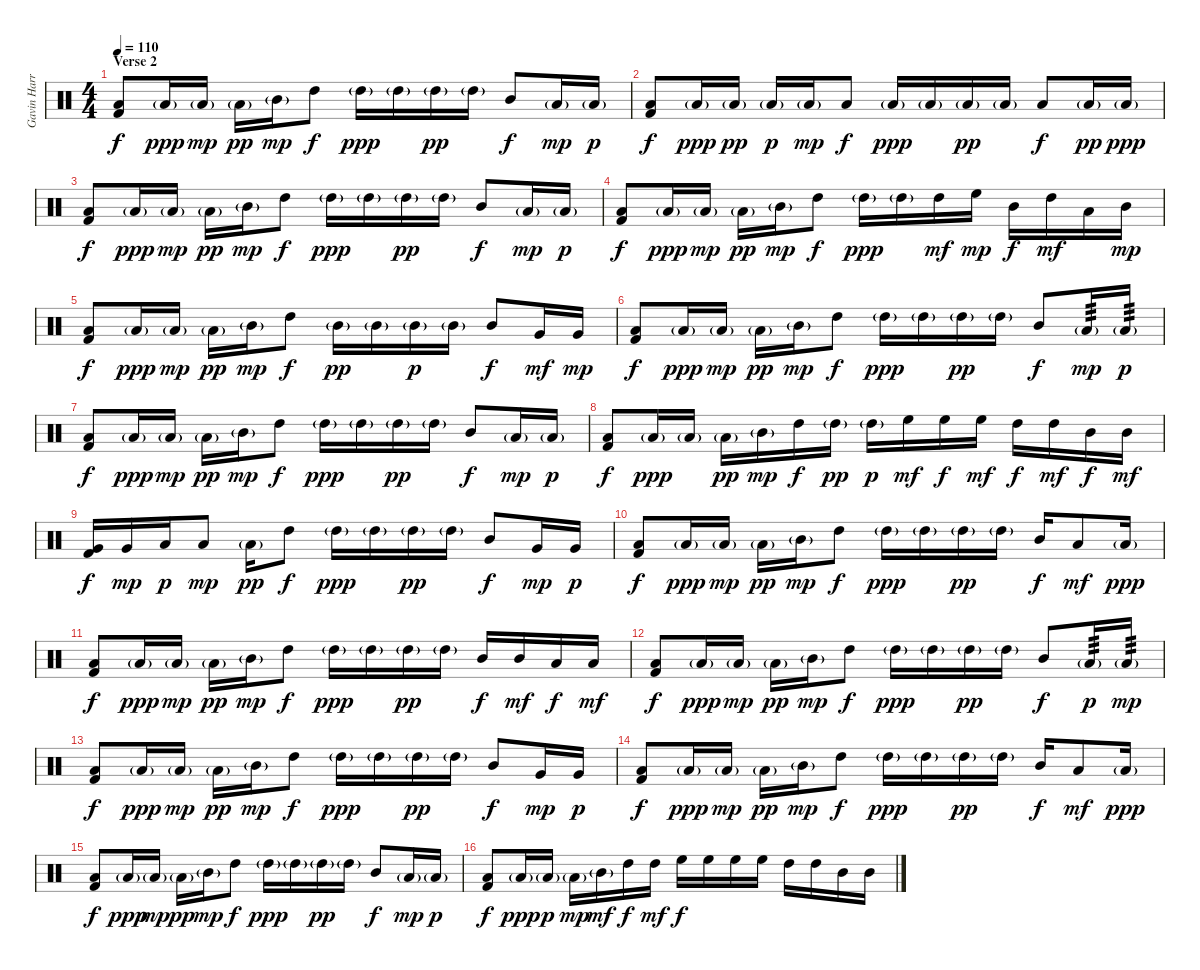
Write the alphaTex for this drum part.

\track ("Gavin Harrison - Drums" "Gavin Harr") {instrument percussion}
\staff {score}
\articulation defaults
\ts (4 4)
\section ("" "Verse 2")
\tempo 110
\clef neutral
\ks c
("Low Floor Tom (hit)" "Kick (hit) 2").8{dy f} "Low Floor Tom (hit)"{g}.16{dy ppp} "Low Tom (hit)"{g}.16{dy mp} "Low Tom (hit)"{g}.16{dy pp} "Mid Tom (hit)"{g}.16{dy mp} "High Tom (hit)".8{dy f} "High Tom (hit)"{g}.16{dy ppp} "High Tom (hit)"{g}.16 "High Tom (hit)"{g}.16{dy pp} "High Tom (hit)"{g}.16 "Mid Tom (hit)".8{dy f} "Low Tom (hit)"{g}.16{dy mp} "Low Tom (hit)"{g}.16{dy p} |
("Low Floor Tom (hit)" "Kick (hit) 2").8{dy f} "Low Floor Tom (hit)"{g}.16{dy ppp} "Low Tom (hit)"{g}.16{dy pp} "Low Tom (hit)"{g}.16{dy p} "Low Tom (hit)"{g}.16{dy mp} "Low Tom (hit)".8{dy f} "Low Tom (hit)"{g}.16{dy ppp} "Low Tom (hit)"{g}.16 "Low Tom (hit)"{g}.16{dy pp} "Low Tom (hit)"{g}.16 "Low Floor Tom (hit)".8{dy f} "Low Floor Tom (hit)"{g}.16{dy pp} "Low Floor Tom (hit)"{g}.16{dy ppp} |
("Low Floor Tom (hit)" "Kick (hit) 2").8{dy f} "Low Floor Tom (hit)"{g}.16{dy ppp} "Low Tom (hit)"{g}.16{dy mp} "Low Tom (hit)"{g}.16{dy pp} "Mid Tom (hit)"{g}.16{dy mp} "High Tom (hit)".8{dy f} "High Tom (hit)"{g}.16{dy ppp} "High Tom (hit)"{g}.16 "High Tom (hit)"{g}.16{dy pp} "High Tom (hit)"{g}.16 "Mid Tom (hit)".8{dy f} "Low Tom (hit)"{g}.16{dy mp} "Low Tom (hit)"{g}.16{dy p} |
("Low Floor Tom (hit)" "Kick (hit) 2").8{dy f} "Low Floor Tom (hit)"{g}.16{dy ppp} "Low Tom (hit)"{g}.16{dy mp} "Low Tom (hit)"{g}.16{dy pp} "Mid Tom (hit)"{g}.16{dy mp} "High Tom (hit)".8{dy f} "High Tom (hit)"{g}.16{dy ppp} "High Tom (hit)"{g}.16 "High Tom (hit)".16{dy mf} "High Floor Tom (hit)".16{dy mp} "Mid Tom (hit)".16{dy f} "High Tom (hit)".16{dy mf} "Low Tom (hit)".16 "Mid Tom (hit)".16{dy mp} |
("Low Floor Tom (hit)" "Kick (hit) 2").8{dy f} "Low Floor Tom (hit)"{g}.16{dy ppp} "Low Tom (hit)"{g}.16{dy mp} "Low Tom (hit)"{g}.16{dy pp} "Mid Tom (hit)"{g}.16{dy mp} "High Tom (hit)".8{dy f} "Mid Tom (hit)"{g}.16{dy pp} "Mid Tom (hit)"{g}.16 "Mid Tom (hit)"{g}.16{dy p} "Mid Tom (hit)"{g}.16 "Mid Tom (hit)".8{dy f} "Very Low Tom (hit)".16{dy mf} "Very Low Tom (hit)".16{dy mp} |
("Low Floor Tom (hit)" "Kick (hit) 2").8{dy f} "Low Floor Tom (hit)"{g}.16{dy ppp} "Low Tom (hit)"{g}.16{dy mp} "Low Tom (hit)"{g}.16{dy pp} "Mid Tom (hit)"{g}.16{dy mp} "High Tom (hit)".8{dy f} "High Tom (hit)"{g}.16{dy ppp} "High Tom (hit)"{g}.16 "High Tom (hit)"{g}.16{dy pp} "High Tom (hit)"{g}.16 "Mid Tom (hit)".8{dy f} "Low Tom (hit)"{g}.16{tp 3 dy mp} "Low Tom (hit)"{g}.16{tp 3 dy p} |
("Low Floor Tom (hit)" "Kick (hit) 2").8{dy f} "Low Floor Tom (hit)"{g}.16{dy ppp} "Low Tom (hit)"{g}.16{dy mp} "Low Tom (hit)"{g}.16{dy pp} "Mid Tom (hit)"{g}.16{dy mp} "High Tom (hit)".8{dy f} "High Tom (hit)"{g}.16{dy ppp} "High Tom (hit)"{g}.16 "High Tom (hit)"{g}.16{dy pp} "High Tom (hit)"{g}.16 "Mid Tom (hit)".8{dy f} "Low Tom (hit)"{g}.16{dy mp} "Low Tom (hit)"{g}.16{dy p} |
("Low Floor Tom (hit)" "Kick (hit) 2").8{dy f} "Low Floor Tom (hit)"{g}.16{dy ppp} "Low Tom (hit)"{g}.16 "Low Tom (hit)"{g}.16{dy pp} "Mid Tom (hit)"{g}.16{dy mp} "High Tom (hit)".16{dy f} "High Tom (hit)"{g}.16{dy pp} "High Tom (hit)"{g}.16{dy p} "High Floor Tom (hit)".16{dy mf} "High Floor Tom (hit)".16{dy f} "High Floor Tom (hit)".16{dy mf} "High Tom (hit)".16{dy f} "High Tom (hit)".16{dy mf} "Mid Tom (hit)".16{dy f} "Mid Tom (hit)".16{dy mf} |
("Very Low Tom (hit)" "Kick (hit) 2").16{dy f} "Very Low Tom (hit)".16{dy mp} "Low Floor Tom (hit)".16{dy p} "Low Tom (hit)".8{dy mp} "Low Tom (hit)"{g}.16{dy pp} "High Tom (hit)".8{dy f} "High Tom (hit)"{g}.16{dy ppp} "High Tom (hit)"{g}.16 "High Tom (hit)"{g}.16{dy pp} "High Tom (hit)"{g}.16 "Mid Tom (hit)".8{dy f} "Very Low Tom (hit)".16{dy mp} "Very Low Tom (hit)".16{dy p} |
("Low Floor Tom (hit)" "Kick (hit) 2").8{dy f} "Low Floor Tom (hit)"{g}.16{dy ppp} "Low Tom (hit)"{g}.16{dy mp} "Low Tom (hit)"{g}.16{dy pp} "Mid Tom (hit)"{g}.16{dy mp} "High Tom (hit)".8{dy f} "High Tom (hit)"{g}.16{dy ppp} "High Tom (hit)"{g}.16 "High Tom (hit)"{g}.16{dy pp} "High Tom (hit)"{g}.16 "Mid Tom (hit)".16{dy f} "Low Tom (hit)".8{dy mf} "Low Tom (hit)"{g}.16{dy ppp} |
("Low Floor Tom (hit)" "Kick (hit) 2").8{dy f} "Low Floor Tom (hit)"{g}.16{dy ppp} "Low Tom (hit)"{g}.16{dy mp} "Low Tom (hit)"{g}.16{dy pp} "Mid Tom (hit)"{g}.16{dy mp} "High Tom (hit)".8{dy f} "High Tom (hit)"{g}.16{dy ppp} "High Tom (hit)"{g}.16 "High Tom (hit)"{g}.16{dy pp} "High Tom (hit)"{g}.16 "Mid Tom (hit)".16{dy f} "Mid Tom (hit)".16{dy mf} "Low Tom (hit)".16{dy f} "Low Tom (hit)".16{dy mf} |
("Low Floor Tom (hit)" "Kick (hit) 2").8{dy f} "Low Floor Tom (hit)"{g}.16{dy ppp} "Low Tom (hit)"{g}.16{dy mp} "Low Tom (hit)"{g}.16{dy pp} "Mid Tom (hit)"{g}.16{dy mp} "High Tom (hit)".8{dy f} "High Tom (hit)"{g}.16{dy ppp} "High Tom (hit)"{g}.16 "High Tom (hit)"{g}.16{dy pp} "High Tom (hit)"{g}.16 "Mid Tom (hit)".8{dy f} "Low Tom (hit)"{g}.16{tp 3 dy p} "Low Tom (hit)"{g}.16{tp 3 dy mp} |
("Low Floor Tom (hit)" "Kick (hit) 2").8{dy f} "Low Floor Tom (hit)"{g}.16{dy ppp} "Low Tom (hit)"{g}.16{dy mp} "Low Tom (hit)"{g}.16{dy pp} "Mid Tom (hit)"{g}.16{dy mp} "High Tom (hit)".8{dy f} "High Tom (hit)"{g}.16{dy ppp} "High Tom (hit)"{g}.16 "High Tom (hit)"{g}.16{dy pp} "High Tom (hit)"{g}.16 "Mid Tom (hit)".8{dy f} "Very Low Tom (hit)".16{dy mp} "Very Low Tom (hit)".16{dy p} |
("Low Floor Tom (hit)" "Kick (hit) 2").8{dy f} "Low Floor Tom (hit)"{g}.16{dy ppp} "Low Tom (hit)"{g}.16{dy mp} "Low Tom (hit)"{g}.16{dy pp} "Mid Tom (hit)"{g}.16{dy mp} "High Tom (hit)".8{dy f} "High Tom (hit)"{g}.16{dy ppp} "High Tom (hit)"{g}.16 "High Tom (hit)"{g}.16{dy pp} "High Tom (hit)"{g}.16 "Mid Tom (hit)".16{dy f} "Low Tom (hit)".8{dy mf} "Low Tom (hit)"{g}.16{dy ppp} |
("Low Floor Tom (hit)" "Kick (hit) 2").8{dy f} "Low Floor Tom (hit)"{g}.16{dy ppp} "Low Tom (hit)"{g}.16{dy mp} "Low Tom (hit)"{g}.16{dy pp} "Mid Tom (hit)"{g}.16{dy mp} "High Tom (hit)".8{dy f} "High Tom (hit)"{g}.16{dy ppp} "High Tom (hit)"{g}.16 "High Tom (hit)"{g}.16{dy pp} "High Tom (hit)"{g}.16 "Mid Tom (hit)".8{dy f} "Low Tom (hit)"{g}.16{dy mp} "Low Tom (hit)"{g}.16{dy p} |
("Low Floor Tom (hit)" "Kick (hit) 2").8{dy f} "Low Floor Tom (hit)"{g}.16{dy ppp} "Low Tom (hit)"{g}.16{dy p} "Low Tom (hit)"{g}.16{dy mp} "Mid Tom (hit)"{g}.16{dy mf} "High Tom (hit)".16{dy f} "High Tom (hit)".16{dy mf} "High Floor Tom (hit)".16{dy f} "High Floor Tom (hit)".16 "High Floor Tom (hit)".16 "High Floor Tom (hit)".16 "High Tom (hit)".16 "High Tom (hit)".16 "Mid Tom (hit)".16 "Mid Tom (hit)".16
